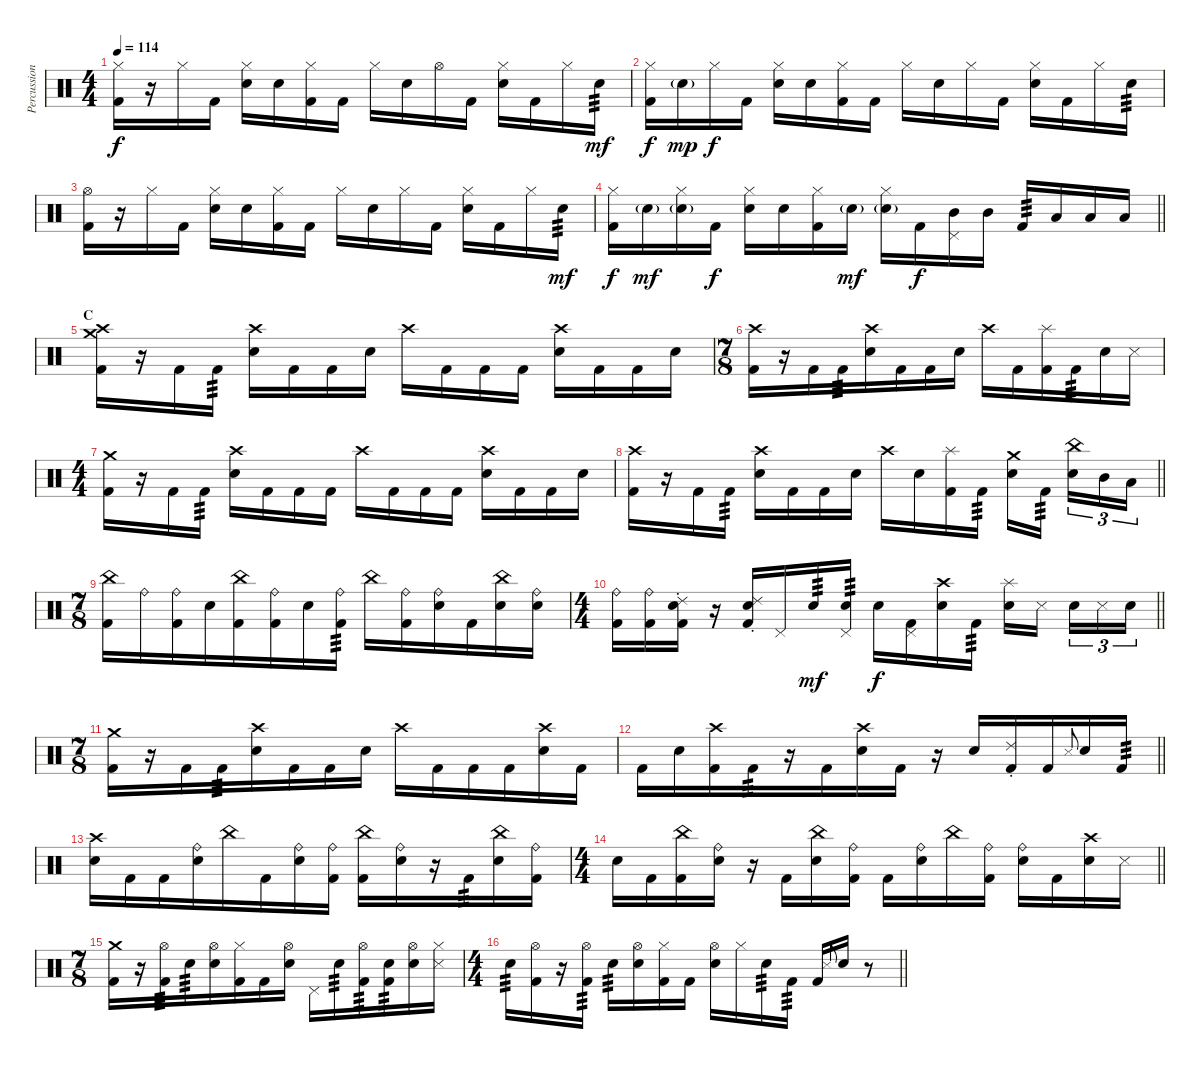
\track ("Percussion" "Percussion") {instrument percussion}
\staff {score}
\articulation defaults
\ts (4 4)
\tempo 114
\clef neutral
\ks c
("Hi-Hat (closed)" "Kick (hit) 2").16{dy f} r.16 "Hi-Hat (closed)".16 "Kick (hit) 2".16 ("Hi-Hat (closed)" "Snare (hit) 2").16 "Snare (hit) 2".16 ("Hi-Hat (closed)" "Kick (hit) 2").16 "Kick (hit) 2".16 "Hi-Hat (closed)".16 "Snare (hit) 2".16 "Hi-Hat (open)".16 "Kick (hit) 2".16 ("Hi-Hat (closed)" "Snare (hit) 2").16 "Kick (hit) 2".16 "Hi-Hat (closed)".16 "Snare (hit) 2".16{tp 3 dy mf} |
("Hi-Hat (closed)" "Kick (hit) 2").16{dy f} "Snare (hit) 2"{g}.16{dy mp} "Hi-Hat (closed)".16{dy f} "Kick (hit) 2".16 ("Hi-Hat (closed)" "Snare (hit) 2").16 "Snare (hit) 2".16 ("Hi-Hat (closed)" "Kick (hit) 2").16 "Kick (hit) 2".16 "Hi-Hat (closed)".16 "Snare (hit) 2".16 "Hi-Hat (closed)".16 "Kick (hit) 2".16 ("Hi-Hat (closed)" "Snare (hit) 2").16 "Kick (hit) 2".16 "Hi-Hat (closed)".16 "Snare (hit) 2".16{tp 3} |
("Hi-Hat (open)" "Kick (hit) 2").16 r.16 "Hi-Hat (closed)".16 "Kick (hit) 2".16 ("Hi-Hat (closed)" "Snare (hit) 2").16 "Snare (hit) 2".16 ("Hi-Hat (closed)" "Kick (hit) 2").16 "Kick (hit) 2".16 "Hi-Hat (closed)".16 "Snare (hit) 2".16 "Hi-Hat (closed)".16 "Kick (hit) 2".16 ("Hi-Hat (closed)" "Snare (hit) 2").16 "Kick (hit) 2".16 "Hi-Hat (closed)".16 "Snare (hit) 2".16{tp 3 dy mf} |
\barLineRight lightlight
("Hi-Hat (closed)" "Kick (hit) 2").16{dy f} "Snare (hit) 2"{g}.16{dy mf} ("Hi-Hat (closed)" "Snare (hit) 2"{g}).16 "Kick (hit) 2".16{dy f} ("Hi-Hat (closed)" "Snare (hit) 2").16 "Snare (hit) 2".16 ("Hi-Hat (closed)" "Kick (hit) 2").16 "Snare (hit) 2"{g}.16{dy mf} ("Hi-Hat (closed)" "Snare (hit) 2"{g}).16 "Kick (hit) 2".16{dy f} ("Pedal Hi-Hat (hit)" "Mid Tom (hit)").16 "Mid Tom (hit)".16 "Kick (hit) 2".16{tp 3} "Low Tom (hit)".16 "Low Tom (hit)".16 "Low Tom (hit)".16 |
\section ("" "C")
("Crash medium (hit)" "Crash high (hit)" "Kick (hit) 2").16 r.16 "Kick (hit) 2".16 "Kick (hit) 2".16{tp 3} ("Crash high (hit)" "Snare (hit) 2").16 "Kick (hit) 2".16 "Kick (hit) 2".16 "Snare (hit) 2".16 "Crash high (hit)".16 "Kick (hit) 2".16 "Kick (hit) 2".16 "Kick (hit) 2".16 ("Crash high (hit)" "Snare (hit) 2").16 "Kick (hit) 2".16 "Kick (hit) 2".16 "Snare (hit) 2".16 |
\ts (7 8)
("Crash high (hit)" "Kick (hit) 2").16 r.16 "Kick (hit) 2".16 "Kick (hit) 2".16{tp 3} ("Crash high (hit)" "Snare (hit) 2").16 "Kick (hit) 2".16 "Kick (hit) 2".16 "Snare (hit) 2".16 "Crash high (hit)".16 "Kick (hit) 2".16 ("Splash (hit)" "Kick (hit) 2").16 "Kick (hit) 2".16{tp 3} "Snare (hit) 2".16 "Metronome (hit)".16 |
\ts (4 4)
("Crash medium (hit)" "Kick (hit) 2").16 r.16 "Kick (hit) 2".16 "Kick (hit) 2".16{tp 3} ("Crash high (hit)" "Snare (hit) 2").16 "Kick (hit) 2".16 "Kick (hit) 2".16 "Kick (hit) 2".16 "Crash high (hit)".16 "Kick (hit) 2".16 "Kick (hit) 2".16 "Kick (hit) 2".16 ("Crash high (hit)" "Snare (hit) 2").16 "Kick (hit) 2".16 "Kick (hit) 2".16 "Snare (hit) 2".16 |
\barLineRight lightlight
("Crash high (hit)" "Kick (hit) 2").16 r.16 "Kick (hit) 2".16 "Kick (hit) 2".16{tp 3} ("Crash high (hit)" "Snare (hit) 2").16 "Kick (hit) 2".16 "Kick (hit) 2".16 "Snare (hit) 2".16 "Crash high (hit)".16 "Snare (hit) 2".16 ("Splash (hit)" "Kick (hit) 2").16 "Kick (hit) 2".16{tp 3} ("Crash medium (hit)" "Snare (hit) 2").16 "Kick (hit) 2".16{tp 3 beam splitsecondary} ("China (hit)" "Snare (hit) 2").16{tu (3 2)} "Mid Tom (hit)".16{tu (3 2)} "Low Tom (hit)".16{tu (3 2)} |
\ts (7 8)
("China (hit)" "Kick (hit) 2").16 "Ride (bell)".16 ("Ride (bell)" "Kick (hit) 2").16 "Snare (hit) 2".16 ("China (hit)" "Kick (hit) 2").16 ("Ride (bell)" "Kick (hit) 2").16 "Snare (hit) 2".16 ("Ride (bell)" "Kick (hit) 2").16{tp 3} "China (hit)".16 ("Ride (bell)" "Kick (hit) 2").16 ("Ride (bell)" "Snare (hit) 2").16 "Kick (hit) 2".16 ("China (hit)" "Snare (hit) 2").16 ("Ride (bell)" "Snare (hit) 2").16 |
\ts (4 4)
\barLineRight lightlight
("Ride (bell)" "Kick (hit) 2").16 ("Ride (bell)" "Kick (hit) 2").16 ("Ride (choke) 2" "Snare (hit) 2" "Kick (hit) 2").16 r.16 ("Ride (choke) 2" "Snare (hit) 2" "Kick (hit) 2").16 "Pedal Hi-Hat (hit)".16 "Snare (hit) 2".16{tp 3 dy mf} ("Pedal Hi-Hat (hit)" "Snare (hit) 2").16{tp 3} "Snare (hit) 2".16{dy f} ("Pedal Hi-Hat (hit)" "Kick (hit) 2").16 ("Crash high (hit)" "Snare (hit) 2").16 "Kick (hit) 2".16{tp 3} ("Splash (hit)" "Snare (hit) 2").16 "Metronome (hit)".16{beam splitsecondary} "Snare (hit) 2".16{tu (3 2)} "Metronome (hit)".16{tu (3 2)} "Snare (hit) 2".16{tu (3 2)} |
\ts (7 8)
("Crash medium (hit)" "Kick (hit) 2").16 r.16 "Kick (hit) 2".16 "Kick (hit) 2".16{tp 3} ("Crash high (hit)" "Snare (hit) 2").16 "Kick (hit) 2".16 "Kick (hit) 2".16 "Snare (hit) 2".16 "Crash high (hit)".16 "Kick (hit) 2".16 "Kick (hit) 2".16 "Kick (hit) 2".16 ("Crash high (hit)" "Snare (hit) 2").16 "Kick (hit) 2".16 |
\barLineRight lightlight "Kick (hit) 2".16 "Snare (hit) 2".16
("Crash high (hit)" "Kick (hit) 2").16 "Kick (hit) 2".16{tp 3} r.16 "Kick (hit) 2".16 ("Crash high (hit)" "Snare (hit) 2").16 "Kick (hit) 2".16 r.16 "Snare (hit) 2".16 ("Ride (choke) 2" "Kick (hit) 2").16 "Kick (hit) 2".16 "Metronome (hit)".8{gr onbeat} "Snare (hit) 2".16 "Kick (hit) 2".16{tp 3} |
("Crash high (hit)" "Snare (hit) 2").16 "Kick (hit) 2".16 "Kick (hit) 2".16 ("Ride (bell)" "Snare (hit) 2").16 "China (hit)".16 "Kick (hit) 2".16 ("Ride (bell)" "Snare (hit) 2").16 ("Ride (bell)" "Kick (hit) 2").16 ("China (hit)" "Kick (hit) 2").16 ("Ride (bell)" "Snare (hit) 2").16 r.16 "Kick (hit) 2".16{tp 3} ("China (hit)" "Snare (hit) 2").16 ("Ride (bell)" "Kick (hit) 2").16 |
\ts (4 4)
\barLineRight lightlight "Snare (hit) 2".16 "Kick (hit) 2".16
("China (hit)" "Kick (hit) 2").16 ("Ride (bell)" "Snare (hit) 2").16 r.16 "Kick (hit) 2".16 ("China (hit)" "Snare (hit) 2").16 ("Ride (bell)" "Kick (hit) 2").16 "Kick (hit) 2".16 ("Ride (bell)" "Snare (hit) 2").16 "China (hit)".16 ("Ride (bell)" "Kick (hit) 2").16 ("Ride (bell)" "Snare (hit) 2").16 "Kick (hit) 2".16 ("Crash high (hit)" "Snare (hit) 2").16 "Metronome (hit)".16 |
\ts (7 8)
("Crash medium (hit)" "Kick (hit) 2").16 r.16 ("Hi-Hat (open)" "Kick (hit) 2").16{tp 3} "Snare (hit)".16{tp 3} ("Hi-Hat (open)" "Snare (hit) 2").16 ("Hi-Hat (closed)" "Kick (hit) 2").16 "Kick (hit) 2".16 ("Hi-Hat (open)" "Snare (hit) 2").16 "Pedal Hi-Hat (hit)".16 "Snare (hit) 2".16{tp 3} ("Hi-Hat (open)" "Kick (hit) 2").16{tp 3} ("Snare (hit)" "Kick (hit) 2").16{tp 3} ("Hi-Hat (open)" "Snare (hit) 2").16 ("Hi-Hat (closed)" "Metronome (hit)").16 |
\ts (4 4)
\barLineRight lightlight "Snare (hit)".16{tp 3}
("Hi-Hat (open)" "Kick (hit) 2").16 r.16 ("Hi-Hat (open)" "Kick (hit) 2").16{tp 3} "Snare (hit)".16{tp 3} ("Hi-Hat (open)" "Snare (hit) 2").16 ("Hi-Hat (closed)" "Kick (hit) 2").16 "Kick (hit) 2".16 ("Hi-Hat (open)" "Snare (hit) 2").16 "Hi-Hat (closed)".16 "Snare (hit) 2".16{tp 3} "Kick (hit) 2".16{tp 3} "Kick (hit) 2".16 "Metronome (hit)".8{gr onbeat} "Snare (hit) 2".16 r.8
